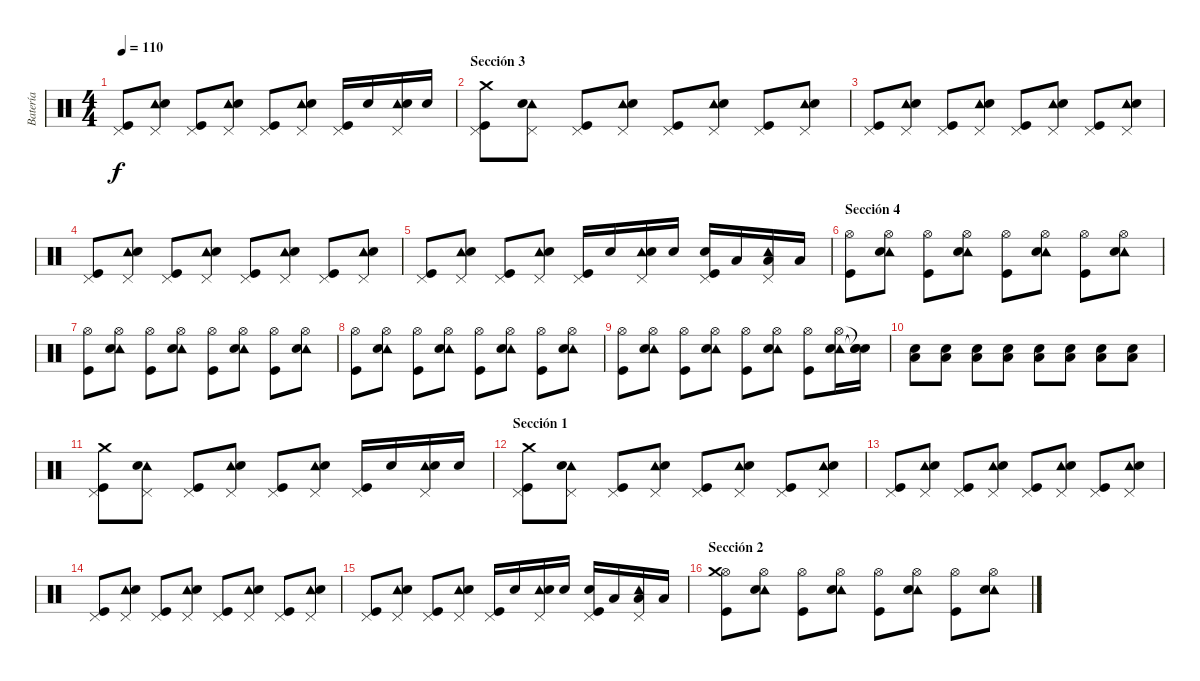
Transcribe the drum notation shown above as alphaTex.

\track ("Batería" "Batería") {instrument percussion}
\staff {score}
\articulation defaults
\ts (4 4)
\tempo 110
\clef neutral
\ks c
("Pedal Hi-Hat (hit)" "Kick (hit)").8{dy f} ("Pedal Hi-Hat (hit)" "Tambourine (hit)" "Electric Snare (hit)").8 ("Pedal Hi-Hat (hit)" "Kick (hit)").8 ("Pedal Hi-Hat (hit)" "Tambourine (hit)" "Electric Snare (hit)").8 ("Pedal Hi-Hat (hit)" "Kick (hit)").8 ("Pedal Hi-Hat (hit)" "Tambourine (hit)" "Electric Snare (hit)").8 ("Pedal Hi-Hat (hit)" "Kick (hit)").16 "Electric Snare (hit)".16 ("Pedal Hi-Hat (hit)" "Tambourine (hit)" "Electric Snare (hit)").16 "Electric Snare (hit)".16 |
\section ("" "Sección 3")
("Pedal Hi-Hat (hit)" "Crash medium (hit)" "Kick (hit)").8 ("Pedal Hi-Hat (hit)" "Tambourine (hit)" "Electric Snare (hit)").8 ("Pedal Hi-Hat (hit)" "Kick (hit)").8 ("Pedal Hi-Hat (hit)" "Tambourine (hit)" "Electric Snare (hit)").8 ("Pedal Hi-Hat (hit)" "Kick (hit)").8 ("Pedal Hi-Hat (hit)" "Tambourine (hit)" "Electric Snare (hit)").8 ("Pedal Hi-Hat (hit)" "Kick (hit)").8 ("Pedal Hi-Hat (hit)" "Tambourine (hit)" "Electric Snare (hit)").8 |
("Pedal Hi-Hat (hit)" "Kick (hit)").8 ("Pedal Hi-Hat (hit)" "Tambourine (hit)" "Electric Snare (hit)").8 ("Pedal Hi-Hat (hit)" "Kick (hit)").8 ("Pedal Hi-Hat (hit)" "Tambourine (hit)" "Electric Snare (hit)").8 ("Pedal Hi-Hat (hit)" "Kick (hit)").8 ("Pedal Hi-Hat (hit)" "Tambourine (hit)" "Electric Snare (hit)").8 ("Pedal Hi-Hat (hit)" "Kick (hit)").8 ("Pedal Hi-Hat (hit)" "Tambourine (hit)" "Electric Snare (hit)").8 |
("Pedal Hi-Hat (hit)" "Kick (hit)").8 ("Pedal Hi-Hat (hit)" "Tambourine (hit)" "Electric Snare (hit)").8 ("Pedal Hi-Hat (hit)" "Kick (hit)").8 ("Pedal Hi-Hat (hit)" "Tambourine (hit)" "Electric Snare (hit)").8 ("Pedal Hi-Hat (hit)" "Kick (hit)").8 ("Pedal Hi-Hat (hit)" "Tambourine (hit)" "Electric Snare (hit)").8 ("Pedal Hi-Hat (hit)" "Kick (hit)").8 ("Pedal Hi-Hat (hit)" "Tambourine (hit)" "Electric Snare (hit)").8 |
("Pedal Hi-Hat (hit)" "Kick (hit)").8 ("Pedal Hi-Hat (hit)" "Tambourine (hit)" "Electric Snare (hit)").8 ("Pedal Hi-Hat (hit)" "Kick (hit)").8 ("Pedal Hi-Hat (hit)" "Tambourine (hit)" "Electric Snare (hit)").8 ("Pedal Hi-Hat (hit)" "Kick (hit)").16 "Electric Snare (hit)".16 ("Pedal Hi-Hat (hit)" "Tambourine (hit)" "Electric Snare (hit)").16 "Electric Snare (hit)".16 ("Pedal Hi-Hat (hit)" "Electric Snare (hit)" "Kick (hit)").16 "Low Tom (hit)".16 ("Pedal Hi-Hat (hit)" "Tambourine (hit)" "Low Tom (hit)").16 "Low Tom (hit)".16 |
\section ("" "Sección 4")
("Hi-Hat (open)" "Kick (hit)").8 ("Hi-Hat (open)" "Tambourine (hit)" "Electric Snare (hit)").8 ("Hi-Hat (open)" "Kick (hit)").8 ("Hi-Hat (open)" "Tambourine (hit)" "Electric Snare (hit)").8 ("Hi-Hat (open)" "Kick (hit)").8 ("Hi-Hat (open)" "Tambourine (hit)" "Electric Snare (hit)").8 ("Hi-Hat (open)" "Kick (hit)").8 ("Hi-Hat (open)" "Tambourine (hit)" "Electric Snare (hit)").8 |
("Hi-Hat (open)" "Kick (hit)").8 ("Hi-Hat (open)" "Tambourine (hit)" "Electric Snare (hit)").8 ("Hi-Hat (open)" "Kick (hit)").8 ("Hi-Hat (open)" "Tambourine (hit)" "Electric Snare (hit)").8 ("Hi-Hat (open)" "Kick (hit)").8 ("Hi-Hat (open)" "Tambourine (hit)" "Electric Snare (hit)").8 ("Hi-Hat (open)" "Kick (hit)").8 ("Hi-Hat (open)" "Tambourine (hit)" "Electric Snare (hit)").8 |
("Hi-Hat (open)" "Kick (hit)").8 ("Hi-Hat (open)" "Tambourine (hit)" "Electric Snare (hit)").8 ("Hi-Hat (open)" "Kick (hit)").8 ("Hi-Hat (open)" "Tambourine (hit)" "Electric Snare (hit)").8 ("Hi-Hat (open)" "Kick (hit)").8 ("Hi-Hat (open)" "Tambourine (hit)" "Electric Snare (hit)").8 ("Hi-Hat (open)" "Kick (hit)").8 ("Hi-Hat (open)" "Tambourine (hit)" "Electric Snare (hit)").8 |
("Hi-Hat (open)" "Kick (hit)").8 ("Hi-Hat (open)" "Tambourine (hit)" "Electric Snare (hit)").8 ("Hi-Hat (open)" "Kick (hit)").8 ("Hi-Hat (open)" "Tambourine (hit)" "Electric Snare (hit)").8 ("Hi-Hat (open)" "Kick (hit)").8 ("Hi-Hat (open)" "Tambourine (hit)" "Electric Snare (hit)").8 ("Hi-Hat (open)" "Kick (hit)").8 ("Hi-Hat (open)" "Tambourine (hit)" "Electric Snare (hit)").16 ("Snare (hit)"{t} "Snare (hit)"{t} "Snare (hit)"{t}).16{volume 5} |
("Low Tom (hit)" "Electric Snare (hit)").8 ("Low Tom (hit)" "Electric Snare (hit)").8{volume 12} ("Low Tom (hit)" "Electric Snare (hit)").8 ("Low Tom (hit)" "Electric Snare (hit)").8 ("Low Tom (hit)" "Electric Snare (hit)").8 ("Low Tom (hit)" "Electric Snare (hit)").8 ("Low Tom (hit)" "Electric Snare (hit)").8 ("Low Tom (hit)" "Electric Snare (hit)").8 |
("Pedal Hi-Hat (hit)" "Crash medium (hit)" "Kick (hit)").8 ("Pedal Hi-Hat (hit)" "Tambourine (hit)" "Electric Snare (hit)").8 ("Pedal Hi-Hat (hit)" "Kick (hit)").8 ("Pedal Hi-Hat (hit)" "Tambourine (hit)" "Electric Snare (hit)").8 ("Pedal Hi-Hat (hit)" "Kick (hit)").8 ("Pedal Hi-Hat (hit)" "Tambourine (hit)" "Electric Snare (hit)").8 ("Pedal Hi-Hat (hit)" "Kick (hit)").16 "Electric Snare (hit)".16 ("Pedal Hi-Hat (hit)" "Tambourine (hit)" "Electric Snare (hit)").16 "Electric Snare (hit)".16 |
\section ("" "Sección 1")
("Pedal Hi-Hat (hit)" "Crash medium (hit)" "Kick (hit)").8 ("Pedal Hi-Hat (hit)" "Tambourine (hit)" "Electric Snare (hit)").8 ("Pedal Hi-Hat (hit)" "Kick (hit)").8 ("Pedal Hi-Hat (hit)" "Tambourine (hit)" "Electric Snare (hit)").8 ("Pedal Hi-Hat (hit)" "Kick (hit)").8 ("Pedal Hi-Hat (hit)" "Tambourine (hit)" "Electric Snare (hit)").8 ("Pedal Hi-Hat (hit)" "Kick (hit)").8 ("Pedal Hi-Hat (hit)" "Tambourine (hit)" "Electric Snare (hit)").8 |
("Pedal Hi-Hat (hit)" "Kick (hit)").8 ("Pedal Hi-Hat (hit)" "Tambourine (hit)" "Electric Snare (hit)").8 ("Pedal Hi-Hat (hit)" "Kick (hit)").8 ("Pedal Hi-Hat (hit)" "Tambourine (hit)" "Electric Snare (hit)").8 ("Pedal Hi-Hat (hit)" "Kick (hit)").8 ("Pedal Hi-Hat (hit)" "Tambourine (hit)" "Electric Snare (hit)").8 ("Pedal Hi-Hat (hit)" "Kick (hit)").8 ("Pedal Hi-Hat (hit)" "Tambourine (hit)" "Electric Snare (hit)").8 |
("Pedal Hi-Hat (hit)" "Kick (hit)").8 ("Pedal Hi-Hat (hit)" "Tambourine (hit)" "Electric Snare (hit)").8 ("Pedal Hi-Hat (hit)" "Kick (hit)").8 ("Pedal Hi-Hat (hit)" "Tambourine (hit)" "Electric Snare (hit)").8 ("Pedal Hi-Hat (hit)" "Kick (hit)").8 ("Pedal Hi-Hat (hit)" "Tambourine (hit)" "Electric Snare (hit)").8 ("Pedal Hi-Hat (hit)" "Kick (hit)").8 ("Pedal Hi-Hat (hit)" "Tambourine (hit)" "Electric Snare (hit)").8 |
("Pedal Hi-Hat (hit)" "Kick (hit)").8 ("Pedal Hi-Hat (hit)" "Tambourine (hit)" "Electric Snare (hit)").8 ("Pedal Hi-Hat (hit)" "Kick (hit)").8 ("Pedal Hi-Hat (hit)" "Tambourine (hit)" "Electric Snare (hit)").8 ("Pedal Hi-Hat (hit)" "Kick (hit)").16 "Electric Snare (hit)".16 ("Pedal Hi-Hat (hit)" "Tambourine (hit)" "Electric Snare (hit)").16 "Electric Snare (hit)".16 ("Pedal Hi-Hat (hit)" "Electric Snare (hit)" "Kick (hit)").16 "Low Tom (hit)".16 ("Pedal Hi-Hat (hit)" "Tambourine (hit)" "Low Tom (hit)").16 "Low Tom (hit)".16 |
\section ("" "Sección 2")
("Hi-Hat (open)" "Crash medium (hit)" "Kick (hit)").8 ("Hi-Hat (open)" "Tambourine (hit)" "Electric Snare (hit)").8 ("Hi-Hat (open)" "Kick (hit)").8 ("Hi-Hat (open)" "Tambourine (hit)" "Electric Snare (hit)").8 ("Hi-Hat (open)" "Kick (hit)").8 ("Hi-Hat (open)" "Tambourine (hit)" "Electric Snare (hit)").8 ("Hi-Hat (open)" "Kick (hit)").8 ("Hi-Hat (open)" "Tambourine (hit)" "Electric Snare (hit)").8
